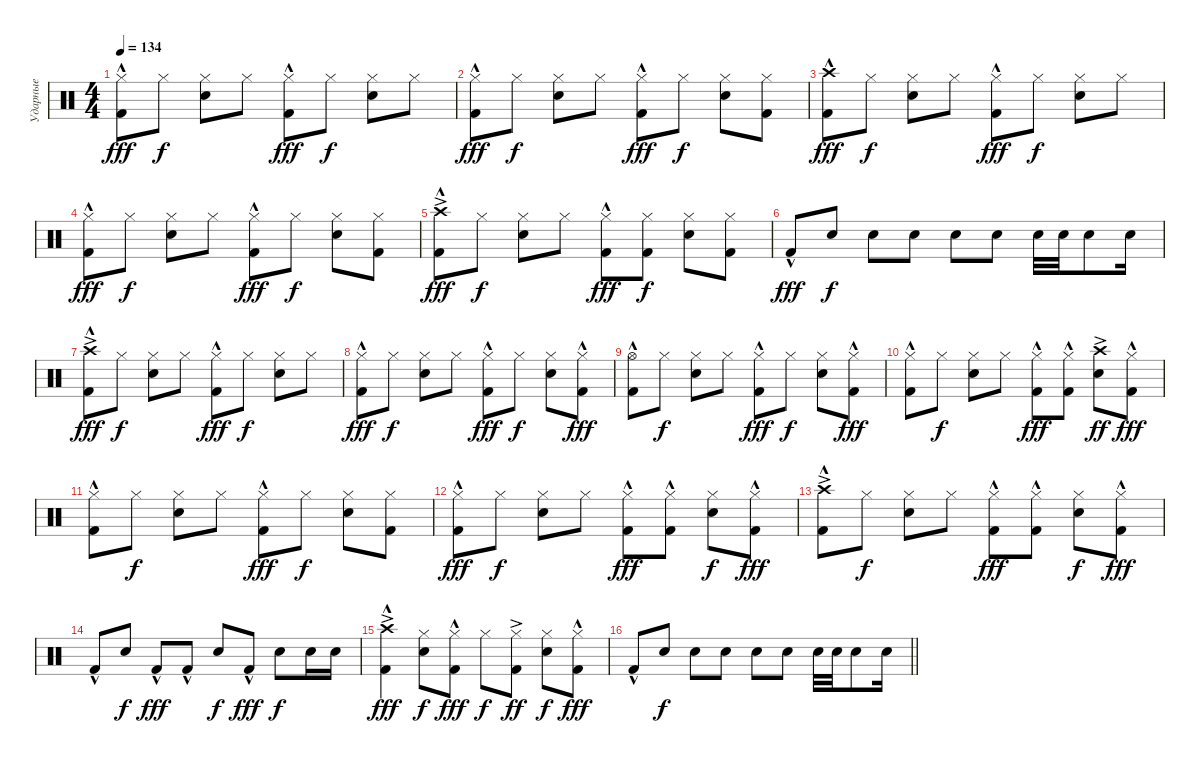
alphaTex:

\track ("Ударные" "Ударные") {instrument percussion}
\staff {score}
\articulation defaults
\ts (4 4)
\tempo 134
\clef neutral
\ks c
("Hi-Hat (closed)" "Kick (hit) 2"{hac}).8{dy fff} "Hi-Hat (closed)".8{dy f} ("Hi-Hat (closed)" "Snare (hit) 2").8 "Hi-Hat (closed)".8 ("Hi-Hat (closed)" "Kick (hit) 2"{hac}).8{dy fff} "Hi-Hat (closed)".8{dy f} ("Hi-Hat (closed)" "Snare (hit) 2").8 "Hi-Hat (closed)".8 |
("Hi-Hat (closed)" "Kick (hit) 2"{hac}).8{dy fff} "Hi-Hat (closed)".8{dy f} ("Hi-Hat (closed)" "Snare (hit) 2").8 "Hi-Hat (closed)".8 ("Hi-Hat (closed)" "Kick (hit) 2"{hac}).8{dy fff} "Hi-Hat (closed)".8{dy f} ("Hi-Hat (closed)" "Snare (hit) 2").8 ("Hi-Hat (closed)" "Kick (hit) 2").8 |
("Crash high (hit)" "Kick (hit) 2"{hac}).8{dy fff} "Hi-Hat (closed)".8{dy f} ("Hi-Hat (closed)" "Snare (hit) 2").8 "Hi-Hat (closed)".8 ("Hi-Hat (closed)" "Kick (hit) 2"{hac}).8{dy fff} "Hi-Hat (closed)".8{dy f} ("Hi-Hat (closed)" "Snare (hit) 2").8 "Hi-Hat (closed)".8 |
("Hi-Hat (closed)" "Kick (hit) 2"{hac}).8{dy fff} "Hi-Hat (closed)".8{dy f} ("Hi-Hat (closed)" "Snare (hit) 2").8 "Hi-Hat (closed)".8 ("Hi-Hat (closed)" "Kick (hit) 2"{hac}).8{dy fff} "Hi-Hat (closed)".8{dy f} ("Hi-Hat (closed)" "Snare (hit) 2").8 ("Hi-Hat (closed)" "Kick (hit) 2").8 |
("Crash high (hit)"{ac} "Kick (hit) 2"{hac}).8{dy fff} "Hi-Hat (closed)".8{dy f} ("Hi-Hat (closed)" "Snare (hit) 2").8 "Hi-Hat (closed)".8 ("Hi-Hat (closed)" "Kick (hit) 2"{hac}).8{dy fff} ("Hi-Hat (closed)" "Kick (hit) 2").8{dy f} ("Hi-Hat (closed)" "Snare (hit) 2").8 ("Hi-Hat (closed)" "Kick (hit) 2").8 |
"Kick (hit) 2"{hac}.8{dy fff} "Snare (hit) 2".8{dy f} "Snare (hit) 2".8 "Snare (hit) 2".8 "Snare (hit) 2".8 "Snare (hit) 2".8 "Snare (hit) 2".32 "Snare (hit) 2".32 "Snare (hit) 2".8 "Snare (hit) 2".16 |
("Crash high (hit)"{ac} "Kick (hit) 2"{hac}).8{dy fff} "Hi-Hat (closed)".8{dy f} ("Hi-Hat (closed)" "Snare (hit) 2").8 "Hi-Hat (closed)".8 ("Hi-Hat (closed)" "Kick (hit) 2"{hac}).8{dy fff} "Hi-Hat (closed)".8{dy f} ("Hi-Hat (closed)" "Snare (hit) 2").8 "Hi-Hat (closed)".8 |
("Hi-Hat (closed)" "Kick (hit) 2"{hac}).8{dy fff} "Hi-Hat (closed)".8{dy f} ("Hi-Hat (closed)" "Snare (hit) 2").8 "Hi-Hat (closed)".8 ("Hi-Hat (closed)" "Kick (hit) 2"{hac}).8{dy fff} "Hi-Hat (closed)".8{dy f} ("Hi-Hat (closed)" "Snare (hit) 2").8 ("Hi-Hat (closed)" "Kick (hit) 2"{hac}).8{dy fff} |
("Hi-Hat (open)" "Kick (hit) 2"{hac}).8 "Hi-Hat (closed)".8{dy f} ("Hi-Hat (closed)" "Snare (hit) 2").8 "Hi-Hat (closed)".8 ("Hi-Hat (closed)" "Kick (hit) 2"{hac}).8{dy fff} "Hi-Hat (closed)".8{dy f} ("Hi-Hat (closed)" "Snare (hit) 2").8 ("Hi-Hat (closed)" "Kick (hit) 2"{hac}).8{dy fff} |
("Hi-Hat (closed)" "Kick (hit) 2"{hac}).8 "Hi-Hat (closed)".8{dy f} ("Hi-Hat (closed)" "Snare (hit) 2").8 "Hi-Hat (closed)".8 ("Hi-Hat (closed)" "Kick (hit) 2"{hac}).8{dy fff} ("Hi-Hat (closed)" "Kick (hit) 2"{hac}).8 ("Crash high (hit)"{ac} "Snare (hit) 2").8{dy ff} ("Hi-Hat (closed)" "Kick (hit) 2"{hac}).8{dy fff} |
("Hi-Hat (closed)" "Kick (hit) 2"{hac}).8 "Hi-Hat (closed)".8{dy f} ("Hi-Hat (closed)" "Snare (hit) 2").8 "Hi-Hat (closed)".8 ("Hi-Hat (closed)" "Kick (hit) 2"{hac}).8{dy fff} "Hi-Hat (closed)".8{dy f} ("Hi-Hat (closed)" "Snare (hit) 2").8 ("Hi-Hat (closed)" "Kick (hit) 2").8 |
("Hi-Hat (closed)" "Kick (hit) 2"{hac}).8{dy fff} "Hi-Hat (closed)".8{dy f} ("Hi-Hat (closed)" "Snare (hit) 2").8 "Hi-Hat (closed)".8 ("Hi-Hat (closed)" "Kick (hit) 2"{hac}).8{dy fff} ("Hi-Hat (closed)" "Kick (hit) 2"{hac}).8 ("Hi-Hat (closed)" "Snare (hit) 2").8{dy f} ("Hi-Hat (closed)" "Kick (hit) 2"{hac}).8{dy fff} |
("Crash high (hit)"{ac} "Kick (hit) 2"{hac}).8 "Hi-Hat (closed)".8{dy f} ("Hi-Hat (closed)" "Snare (hit) 2").8 "Hi-Hat (closed)".8 ("Hi-Hat (closed)" "Kick (hit) 2"{hac}).8{dy fff} ("Hi-Hat (closed)" "Kick (hit) 2"{hac}).8 ("Hi-Hat (closed)" "Snare (hit) 2").8{dy f} ("Hi-Hat (closed)" "Kick (hit) 2"{hac}).8{dy fff} |
"Kick (hit) 2"{hac}.8 "Snare (hit) 2".8{dy f} "Kick (hit) 2"{hac}.8{dy fff} "Kick (hit) 2"{hac}.8 "Snare (hit) 2".8{dy f} "Kick (hit) 2"{hac}.8{dy fff} "Snare (hit) 2".8{dy f} "Snare (hit) 2".16 "Snare (hit) 2".16 |
("Crash high (hit)"{ac} "Kick (hit) 2"{hac}).4{dy fff} ("Hi-Hat (closed)" "Snare (hit) 2").8{dy f} ("Hi-Hat (closed)" "Kick (hit) 2"{hac}).8{dy fff} "Hi-Hat (closed)".8{dy f} ("Hi-Hat (closed)" "Kick (hit) 2"{ac}).8{dy ff} ("Hi-Hat (closed)" "Snare (hit) 2").8{dy f} ("Hi-Hat (closed)" "Kick (hit) 2"{hac}).8{dy fff} |
\barLineRight lightlight "Kick (hit) 2"{hac}.8 "Snare (hit) 2".8{dy f} "Snare (hit) 2".8 "Snare (hit) 2".8 "Snare (hit) 2".8 "Snare (hit) 2".8 "Snare (hit) 2".32 "Snare (hit) 2".32 "Snare (hit) 2".8 "Snare (hit) 2".16
